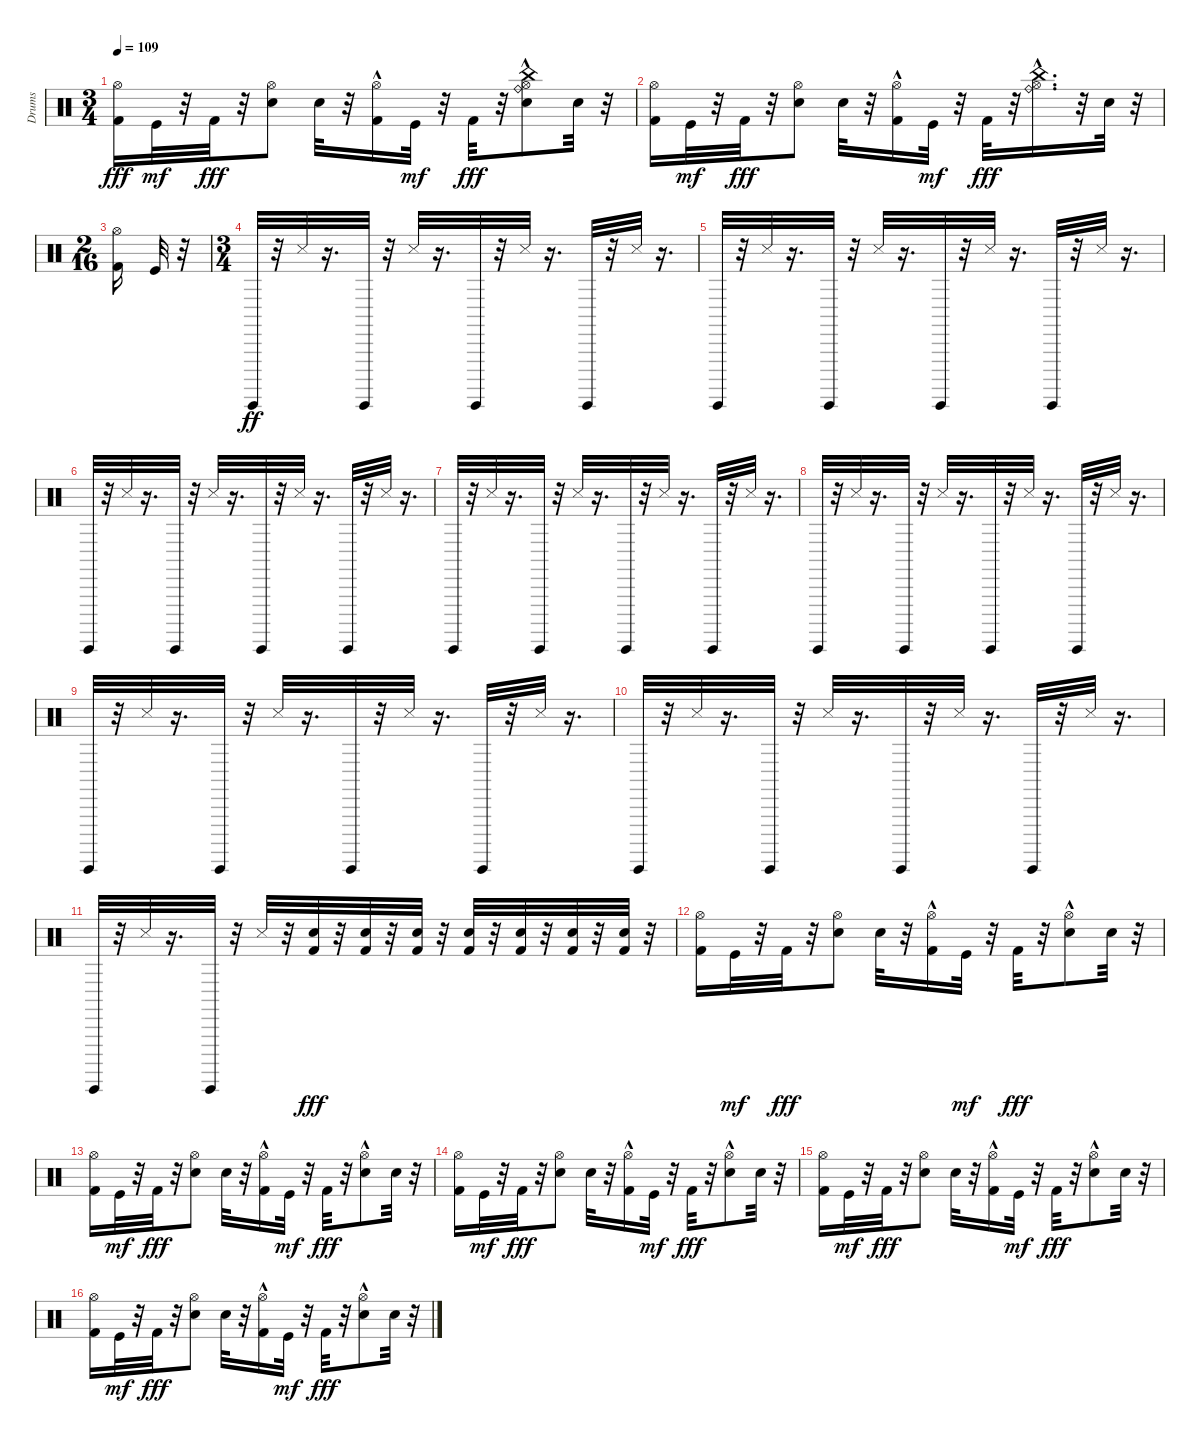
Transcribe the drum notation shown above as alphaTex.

\track ("Drums" "Drums") {instrument percussion}
\staff {score}
\articulation defaults
\ts (3 4)
\tempo 109
\clef neutral
\ks c
("Kick (hit) 2" "Hi-Hat (open)").16{dy fff} "Kick (hit)".32{dy mf} r.32 "Kick (hit) 2".32{dy fff} r.32 ("Electric Snare (hit)" "Hi-Hat (open)").8 "Electric Snare (hit)".32 r.32 ("Kick (hit) 2" "Hi-Hat (open)"{hac}).16 "Kick (hit)".32{dy mf} r.32 "Kick (hit) 2".32{dy fff} r.32 ("Ride (bell)" "Electric Snare (hit)" "Hi-Hat (open)"{hac} "China (hit)").8 "Electric Snare (hit)".32 r.32 |
("Kick (hit) 2" "Hi-Hat (open)").16 "Kick (hit)".32{dy mf} r.32 "Kick (hit) 2".32{dy fff} r.32 ("Electric Snare (hit)" "Hi-Hat (open)").8 "Electric Snare (hit)".32 r.32 ("Kick (hit) 2" "Hi-Hat (open)"{hac}).16 "Kick (hit)".32{dy mf} r.32 "Kick (hit) 2".32{dy fff} r.32 ("Ride (bell)" "Hi-Hat (open)"{hac} "China (hit)").16{d} r.32 "Electric Snare (hit)".32 r.32 |
\ts (2 16)
("Hi-Hat (open)" "Kick (hit) 2").16 "Kick (hit)".32 r.32 |
\ts (3 4)
"Guiro (hit)".32{dy ff} r.32 "Metronome (hit)".32 r.16{d} "Guiro (hit)".32 r.32 "Metronome (hit)".32 r.16{d} "Guiro (hit)".32 r.32 "Metronome (hit)".32 r.16{d} "Guiro (hit)".32 r.32 "Metronome (hit)".32 r.16{d} |
"Guiro (hit)".32 r.32 "Metronome (hit)".32 r.16{d} "Guiro (hit)".32 r.32 "Metronome (hit)".32 r.16{d} "Guiro (hit)".32 r.32 "Metronome (hit)".32 r.16{d} "Guiro (hit)".32 r.32 "Metronome (hit)".32 r.16{d} |
"Guiro (hit)".32 r.32 "Metronome (hit)".32 r.16{d} "Guiro (hit)".32 r.32 "Metronome (hit)".32 r.16{d} "Guiro (hit)".32 r.32 "Metronome (hit)".32 r.16{d} "Guiro (hit)".32 r.32 "Metronome (hit)".32 r.16{d} |
"Guiro (hit)".32 r.32 "Metronome (hit)".32 r.16{d} "Guiro (hit)".32 r.32 "Metronome (hit)".32 r.16{d} "Guiro (hit)".32 r.32 "Metronome (hit)".32 r.16{d} "Guiro (hit)".32 r.32 "Metronome (hit)".32 r.16{d} |
"Guiro (hit)".32 r.32 "Metronome (hit)".32 r.16{d} "Guiro (hit)".32 r.32 "Metronome (hit)".32 r.16{d} "Guiro (hit)".32 r.32 "Metronome (hit)".32 r.16{d} "Guiro (hit)".32 r.32 "Metronome (hit)".32 r.16{d} |
"Guiro (hit)".32 r.32 "Metronome (hit)".32 r.16{d} "Guiro (hit)".32 r.32 "Metronome (hit)".32 r.16{d} "Guiro (hit)".32 r.32 "Metronome (hit)".32 r.16{d} "Guiro (hit)".32 r.32 "Metronome (hit)".32 r.16{d} |
"Guiro (hit)".32 r.32 "Metronome (hit)".32 r.16{d} "Guiro (hit)".32 r.32 "Metronome (hit)".32 r.16{d} "Guiro (hit)".32 r.32 "Metronome (hit)".32 r.16{d} "Guiro (hit)".32 r.32 "Metronome (hit)".32 r.16{d} |
"Guiro (hit)".32 r.32 "Metronome (hit)".32 r.16{d} "Guiro (hit)".32 r.32 "Metronome (hit)".32 r.32 ("Electric Snare (hit)" "Kick (hit) 2").32{dy fff} r.32 ("Electric Snare (hit)" "Kick (hit) 2").32 r.32 ("Kick (hit) 2" "Electric Snare (hit)").32 r.32 ("Kick (hit) 2" "Electric Snare (hit)").32 r.32 ("Kick (hit) 2" "Electric Snare (hit)").32 r.32 ("Kick (hit) 2" "Electric Snare (hit)").32 r.32 ("Kick (hit) 2" "Electric Snare (hit)").32 r.32 |
("Kick (hit) 2" "Hi-Hat (open)").16 "Kick (hit)".32{dy mf} r.32 "Kick (hit) 2".32{dy fff} r.32 ("Electric Snare (hit)" "Hi-Hat (open)").8 "Electric Snare (hit)".32 r.32 ("Kick (hit) 2" "Hi-Hat (open)"{hac}).16 "Kick (hit)".32{dy mf} r.32 "Kick (hit) 2".32{dy fff} r.32 ("Electric Snare (hit)" "Hi-Hat (open)"{hac}).8 "Electric Snare (hit)".32 r.32 |
("Kick (hit) 2" "Hi-Hat (open)").16 "Kick (hit)".32{dy mf} r.32 "Kick (hit) 2".32{dy fff} r.32 ("Electric Snare (hit)" "Hi-Hat (open)").8 "Electric Snare (hit)".32 r.32 ("Kick (hit) 2" "Hi-Hat (open)"{hac}).16 "Kick (hit)".32{dy mf} r.32 "Kick (hit) 2".32{dy fff} r.32 ("Electric Snare (hit)" "Hi-Hat (open)"{hac}).8 "Electric Snare (hit)".32 r.32 |
("Kick (hit) 2" "Hi-Hat (open)").16 "Kick (hit)".32{dy mf} r.32 "Kick (hit) 2".32{dy fff} r.32 ("Electric Snare (hit)" "Hi-Hat (open)").8 "Electric Snare (hit)".32 r.32 ("Kick (hit) 2" "Hi-Hat (open)"{hac}).16 "Kick (hit)".32{dy mf} r.32 "Kick (hit) 2".32{dy fff} r.32 ("Electric Snare (hit)" "Hi-Hat (open)"{hac}).8 "Electric Snare (hit)".32 r.32 |
("Kick (hit) 2" "Hi-Hat (open)").16 "Kick (hit)".32{dy mf} r.32 "Kick (hit) 2".32{dy fff} r.32 ("Electric Snare (hit)" "Hi-Hat (open)").8 "Electric Snare (hit)".32 r.32 ("Kick (hit) 2" "Hi-Hat (open)"{hac}).16 "Kick (hit)".32{dy mf} r.32 "Kick (hit) 2".32{dy fff} r.32 ("Electric Snare (hit)" "Hi-Hat (open)"{hac}).8 "Electric Snare (hit)".32 r.32 |
("Kick (hit) 2" "Hi-Hat (open)").16 "Kick (hit)".32{dy mf} r.32 "Kick (hit) 2".32{dy fff} r.32 ("Electric Snare (hit)" "Hi-Hat (open)").8 "Electric Snare (hit)".32 r.32 ("Kick (hit) 2" "Hi-Hat (open)"{hac}).16 "Kick (hit)".32{dy mf} r.32 "Kick (hit) 2".32{dy fff} r.32 ("Electric Snare (hit)" "Hi-Hat (open)"{hac}).8 "Electric Snare (hit)".32 r.32
